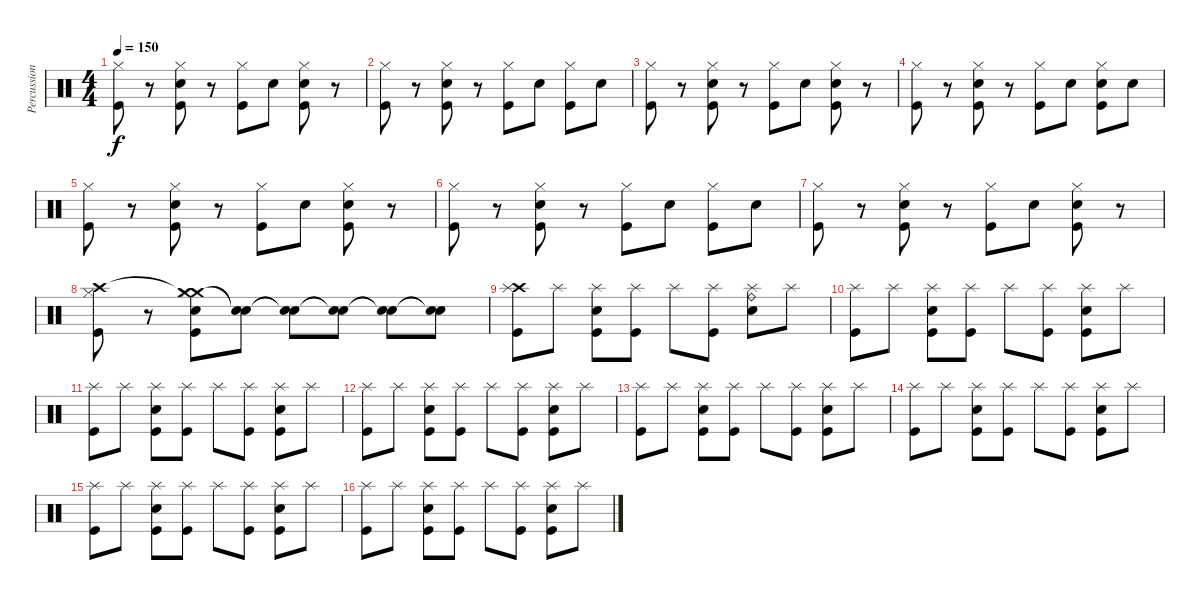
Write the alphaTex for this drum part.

\track ("Percussion" "Percussion") {instrument percussion}
\staff {score}
\articulation defaults
\ts (4 4)
\tempo 150
\clef neutral
\ks c
("Hi-Hat (closed)" "Kick (hit)").8{dy f} r.8 ("Hi-Hat (closed)" "Snare (hit) 2" "Kick (hit)").8 r.8 ("Hi-Hat (closed)" "Kick (hit)").8 "Snare (hit) 2".8 ("Hi-Hat (closed)" "Snare (hit) 2" "Kick (hit)").8 r.8 |
("Hi-Hat (closed)" "Kick (hit)").8 r.8 ("Hi-Hat (closed)" "Snare (hit) 2" "Kick (hit)").8 r.8 ("Hi-Hat (closed)" "Kick (hit)").8 "Snare (hit) 2".8 ("Hi-Hat (closed)" "Kick (hit)").8 "Snare (hit) 2".8 |
("Hi-Hat (closed)" "Kick (hit)").8 r.8 ("Hi-Hat (closed)" "Snare (hit) 2" "Kick (hit)").8 r.8 ("Hi-Hat (closed)" "Kick (hit)").8 "Snare (hit) 2".8 ("Hi-Hat (closed)" "Snare (hit) 2" "Kick (hit)").8 r.8 |
("Hi-Hat (closed)" "Kick (hit)").8 r.8 ("Hi-Hat (closed)" "Snare (hit) 2" "Kick (hit)").8 r.8 ("Hi-Hat (closed)" "Kick (hit)").8 "Snare (hit) 2".8 ("Hi-Hat (closed)" "Snare (hit) 2" "Kick (hit)").8 "Snare (hit) 2".8 |
("Hi-Hat (closed)" "Kick (hit)").8 r.8 ("Hi-Hat (closed)" "Snare (hit) 2" "Kick (hit)").8 r.8 ("Hi-Hat (closed)" "Kick (hit)").8 "Snare (hit) 2".8 ("Hi-Hat (closed)" "Snare (hit) 2" "Kick (hit)").8 r.8 |
("Hi-Hat (closed)" "Kick (hit)").8 r.8 ("Hi-Hat (closed)" "Snare (hit) 2" "Kick (hit)").8 r.8 ("Hi-Hat (closed)" "Kick (hit)").8 "Snare (hit) 2".8 ("Hi-Hat (closed)" "Kick (hit)").8 "Snare (hit) 2".8 |
("Hi-Hat (closed)" "Kick (hit)").8 r.8 ("Hi-Hat (closed)" "Snare (hit) 2" "Kick (hit)").8 r.8 ("Hi-Hat (closed)" "Kick (hit)").8 "Snare (hit) 2".8 ("Hi-Hat (closed)" "Snare (hit) 2" "Kick (hit)").8 r.8 |
("Crash high (hit)" "Hi-Hat (closed)" "Kick (hit)").8 r.8 ("Crash medium (hit)"{t} "Hi-Hat (closed)" "Crash medium (hit)" "Snare (hit) 2" "Kick (hit)").8 ("Snare (hit)"{t} "Snare (hit)"{t}).8 ("Snare (hit)"{t} "Snare (hit)"{t}).8 ("Snare (hit)"{t} "Snare (hit)"{t}).8 ("Snare (hit)"{t} "Snare (hit)"{t}).8 ("Snare (hit)"{t} "Snare (hit)"{t}).8 |
("Crash high (hit)" "Splash (hit)" "Kick (hit)").8 "Splash (hit)".8 ("Splash (hit)" "Snare (hit) 2" "Kick (hit)").8 ("Splash (hit)" "Kick (hit)").8 "Splash (hit)".8 ("Splash (hit)" "Kick (hit)").8 ("Splash (hit)" "Snare (hit) 2" "Ride (bell)").8 "Splash (hit)".8 |
("Splash (hit)" "Kick (hit)").8 "Splash (hit)".8 ("Splash (hit)" "Snare (hit) 2" "Kick (hit)").8 ("Splash (hit)" "Kick (hit)").8 "Splash (hit)".8 ("Splash (hit)" "Kick (hit)").8 ("Splash (hit)" "Snare (hit) 2" "Kick (hit)").8 "Splash (hit)".8 |
("Splash (hit)" "Kick (hit)").8 "Splash (hit)".8 ("Splash (hit)" "Snare (hit) 2" "Kick (hit)").8 ("Splash (hit)" "Kick (hit)").8 "Splash (hit)".8 ("Splash (hit)" "Kick (hit)").8 ("Splash (hit)" "Snare (hit) 2" "Kick (hit)").8 "Splash (hit)".8 |
("Splash (hit)" "Kick (hit)").8 "Splash (hit)".8 ("Splash (hit)" "Snare (hit) 2" "Kick (hit)").8 ("Splash (hit)" "Kick (hit)").8 "Splash (hit)".8 ("Splash (hit)" "Kick (hit)").8 ("Splash (hit)" "Snare (hit) 2" "Kick (hit)").8 "Splash (hit)".8 |
("Splash (hit)" "Kick (hit)").8 "Splash (hit)".8 ("Splash (hit)" "Snare (hit) 2" "Kick (hit)").8 ("Splash (hit)" "Kick (hit)").8 "Splash (hit)".8 ("Splash (hit)" "Kick (hit)").8 ("Splash (hit)" "Snare (hit) 2" "Kick (hit)").8 "Splash (hit)".8 |
("Splash (hit)" "Kick (hit)").8 "Splash (hit)".8 ("Splash (hit)" "Snare (hit) 2" "Kick (hit)").8 ("Splash (hit)" "Kick (hit)").8 "Splash (hit)".8 ("Splash (hit)" "Kick (hit)").8 ("Splash (hit)" "Snare (hit) 2" "Kick (hit)").8 "Splash (hit)".8 |
("Splash (hit)" "Kick (hit)").8 "Splash (hit)".8 ("Splash (hit)" "Snare (hit) 2" "Kick (hit)").8 ("Splash (hit)" "Kick (hit)").8 "Splash (hit)".8 ("Splash (hit)" "Kick (hit)").8 ("Splash (hit)" "Snare (hit) 2" "Kick (hit)").8 "Splash (hit)".8 |
("Splash (hit)" "Kick (hit)").8 "Splash (hit)".8 ("Splash (hit)" "Snare (hit) 2" "Kick (hit)").8 ("Splash (hit)" "Kick (hit)").8 "Splash (hit)".8 ("Splash (hit)" "Kick (hit)").8 ("Splash (hit)" "Snare (hit) 2" "Kick (hit)").8 "Splash (hit)".8
